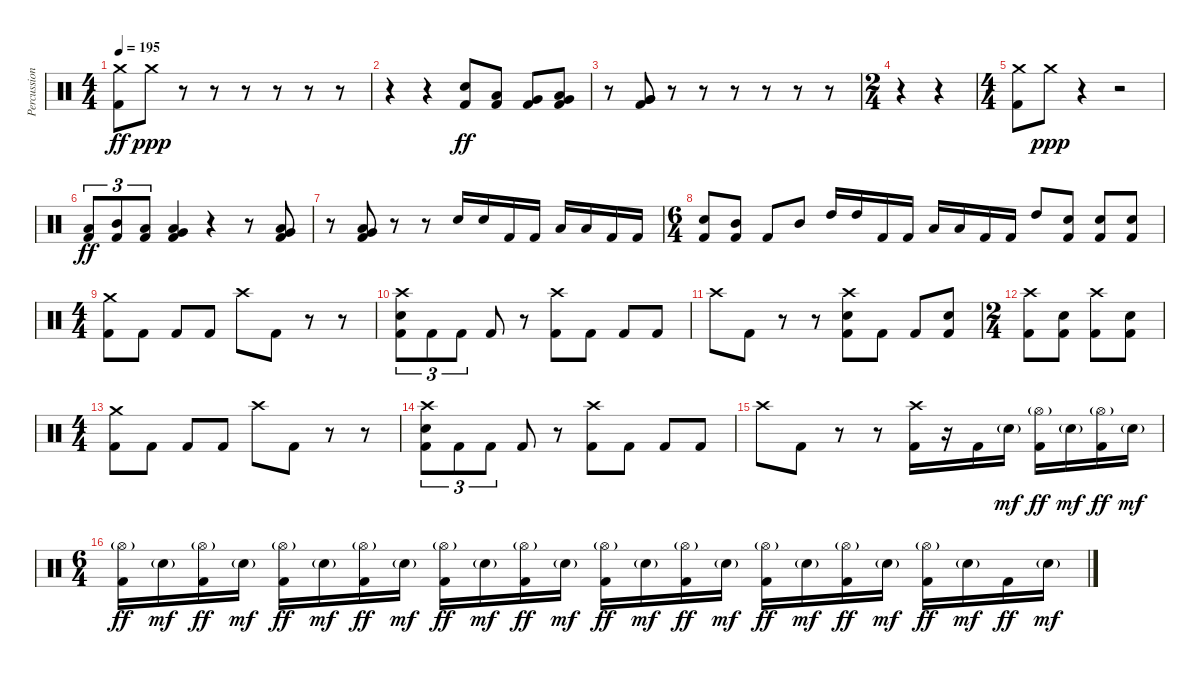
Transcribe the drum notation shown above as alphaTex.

\track ("Percussion" "Percussion") {instrument percussion}
\staff {score}
\articulation defaults
\ts (4 4)
\tempo 195
\clef neutral
\ks c
("Crash medium (hit)" "Kick (hit) 2").8{dy ff} "Crash medium (hit)".8{dy ppp} r.8 r.8 r.8 r.8 r.8 r.8 |
r.4 r.4 ("Electric Snare (hit)" "Kick (hit) 2").8{dy ff} ("Low Tom (hit)" "Kick (hit) 2").8 ("Very Low Tom (hit)" "Kick (hit) 2").8 ("Very Low Tom (hit)" "Low Tom (hit)" "Kick (hit) 2").8 |
r.8 ("Very Low Tom (hit)" "Very Low Tom (hit)" "Kick (hit) 2").8 r.8 r.8 r.8 r.8 r.8 r.8 |
\ts (2 4)
r.4 r.4 |
\ts (4 4)
("Crash medium (hit)" "Kick (hit) 2").8 "Crash medium (hit)".8{dy ppp} r.4 r.2 |
("Low Tom (hit)" "Kick (hit) 2").8{tu (3 2) dy ff} ("Mid Tom (hit)" "Kick (hit) 2").8{tu (3 2)} ("Low Tom (hit)" "Kick (hit) 2").8{tu (3 2)} ("Low Tom (hit)" "Very Low Tom (hit)" "Kick (hit) 2").4 r.4 r.8 ("Low Tom (hit)" "Very Low Tom (hit)" "Kick (hit) 2").8 |
r.8 ("Low Tom (hit)" "Very Low Tom (hit)" "Kick (hit) 2").8 r.8 r.8 "Electric Snare (hit)".16 "Electric Snare (hit)".16 "Kick (hit) 2".16 "Kick (hit) 2".16 "Low Tom (hit)".16 "Low Tom (hit)".16 "Kick (hit) 2".16 "Kick (hit) 2".16 |
\ts (6 4)
("Electric Snare (hit)" "Kick (hit) 2").8 ("Mid Tom (hit)" "Kick (hit) 2").8 "Kick (hit) 2".8 "Mid Tom (hit)".8 "High Tom (hit)".16 "High Tom (hit)".16 "Kick (hit) 2".16 "Kick (hit) 2".16 "Low Tom (hit)".16 "Low Tom (hit)".16 "Kick (hit) 2".16 "Kick (hit) 2".16 "High Tom (hit)".8 ("Electric Snare (hit)" "Kick (hit) 2").8 ("Electric Snare (hit)" "Kick (hit) 2").8 ("Electric Snare (hit)" "Kick (hit) 2").8 |
\ts (4 4)
("Crash medium (hit)" "Kick (hit) 2").8 "Kick (hit) 2".8 "Kick (hit) 2".8 "Kick (hit) 2".8 "Crash high (hit)".8 "Kick (hit) 2".8 r.8 r.8 |
("Crash high (hit)" "Electric Snare (hit)" "Kick (hit) 2").8{tu (3 2)} "Kick (hit) 2".8{tu (3 2)} "Kick (hit) 2".8{tu (3 2)} "Kick (hit) 2".8 r.8 ("Crash high (hit)" "Kick (hit) 2").8 "Kick (hit) 2".8 "Kick (hit) 2".8 "Kick (hit) 2".8 |
"Crash high (hit)".8 "Kick (hit) 2".8 r.8 r.8 ("Crash high (hit)" "Electric Snare (hit)" "Kick (hit) 2").8 "Kick (hit) 2".8 "Kick (hit) 2".8 ("Electric Snare (hit)" "Kick (hit) 2").8 |
\ts (2 4)
("Crash high (hit)" "Kick (hit) 2").8 ("Electric Snare (hit)" "Kick (hit) 2").8 ("Crash high (hit)" "Kick (hit) 2").8 ("Electric Snare (hit)" "Kick (hit) 2").8 |
\ts (4 4)
("Crash medium (hit)" "Kick (hit) 2").8 "Kick (hit) 2".8 "Kick (hit) 2".8 "Kick (hit) 2".8 "Crash high (hit)".8 "Kick (hit) 2".8 r.8 r.8 |
("Crash high (hit)" "Electric Snare (hit)" "Kick (hit) 2").8{tu (3 2)} "Kick (hit) 2".8{tu (3 2)} "Kick (hit) 2".8{tu (3 2)} "Kick (hit) 2".8 r.8 ("Crash high (hit)" "Kick (hit) 2").8 "Kick (hit) 2".8 "Kick (hit) 2".8 "Kick (hit) 2".8 |
"Crash high (hit)".8 "Kick (hit) 2".8 r.8 r.8 ("Crash high (hit)" "Kick (hit) 2").16 r.16 "Kick (hit) 2".16 "Electric Snare (hit)"{g}.16{dy mf} ("Hi-Hat (open)"{g} "Kick (hit) 2").16{dy ff} "Electric Snare (hit)"{g}.16{dy mf} ("Hi-Hat (open)"{g} "Kick (hit) 2").16{dy ff} "Electric Snare (hit)"{g}.16{dy mf} |
\ts (6 4)
("Hi-Hat (open)"{g} "Kick (hit) 2").16{dy ff} "Electric Snare (hit)"{g}.16{dy mf} ("Hi-Hat (open)"{g} "Kick (hit) 2").16{dy ff} "Electric Snare (hit)"{g}.16{dy mf} ("Hi-Hat (open)"{g} "Kick (hit) 2").16{dy ff} "Electric Snare (hit)"{g}.16{dy mf} ("Hi-Hat (open)"{g} "Kick (hit) 2").16{dy ff} "Electric Snare (hit)"{g}.16{dy mf} ("Hi-Hat (open)"{g} "Kick (hit) 2").16{dy ff} "Electric Snare (hit)"{g}.16{dy mf} ("Hi-Hat (open)"{g} "Kick (hit) 2").16{dy ff} "Electric Snare (hit)"{g}.16{dy mf} ("Hi-Hat (open)"{g} "Kick (hit) 2").16{dy ff} "Electric Snare (hit)"{g}.16{dy mf} ("Hi-Hat (open)"{g} "Kick (hit) 2").16{dy ff} "Electric Snare (hit)"{g}.16{dy mf} ("Hi-Hat (open)"{g} "Kick (hit) 2").16{dy ff} "Electric Snare (hit)"{g}.16{dy mf} ("Hi-Hat (open)"{g} "Kick (hit) 2").16{dy ff} "Electric Snare (hit)"{g}.16{dy mf} ("Hi-Hat (open)"{g} "Kick (hit) 2").16{dy ff} "Electric Snare (hit)"{g}.16{dy mf} "Kick (hit) 2".16{dy ff} "Electric Snare (hit)"{g}.16{dy mf}
